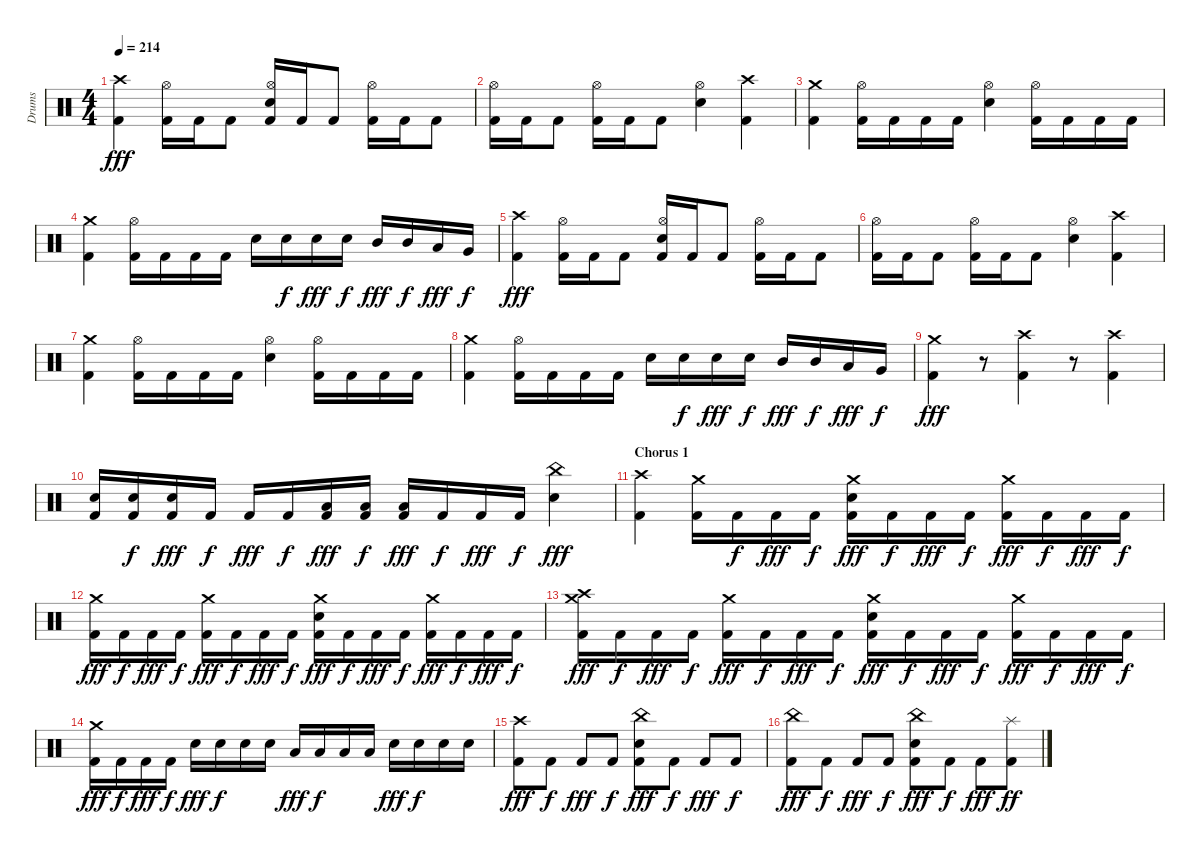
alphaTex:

\track ("Drums" "Drums") {instrument percussion}
\staff {score}
\articulation defaults
\ts (4 4)
\tempo 214
\clef neutral
\ks c
("Crash high (hit)" "Kick (hit) 2").4{dy fff} ("Hi-Hat (open)" "Kick (hit) 2").16 "Kick (hit) 2".16 "Kick (hit) 2".8 ("Hi-Hat (open)" "Electric Snare (hit)" "Kick (hit) 2").16 "Kick (hit) 2".16 "Kick (hit) 2".8 ("Hi-Hat (open)" "Kick (hit) 2").16 "Kick (hit) 2".16 "Kick (hit) 2".8 |
("Hi-Hat (open)" "Kick (hit) 2").16 "Kick (hit) 2".16 "Kick (hit) 2".8 ("Hi-Hat (open)" "Kick (hit) 2").16 "Kick (hit) 2".16 "Kick (hit) 2".8 ("Hi-Hat (open)" "Electric Snare (hit)").4 ("Crash high (hit)" "Kick (hit) 2").4 |
("Crash medium (hit)" "Kick (hit) 2").4 ("Hi-Hat (open)" "Kick (hit) 2").16 "Kick (hit) 2".16 "Kick (hit) 2".16 "Kick (hit) 2".16 ("Hi-Hat (open)" "Electric Snare (hit)").4 ("Hi-Hat (open)" "Kick (hit) 2").16 "Kick (hit) 2".16 "Kick (hit) 2".16 "Kick (hit) 2".16 |
("Crash medium (hit)" "Kick (hit) 2").4 ("Hi-Hat (open)" "Kick (hit) 2").16 "Kick (hit) 2".16 "Kick (hit) 2".16 "Kick (hit) 2".16 "Electric Snare (hit)".16 "Electric Snare (hit)".16{dy f} "Electric Snare (hit)".16{dy fff} "Electric Snare (hit)".16{dy f} "Mid Tom (hit)".16{dy fff} "Mid Tom (hit)".16{dy f} "Low Tom (hit)".16{dy fff} "Very Low Tom (hit)".16{dy f} |
("Crash high (hit)" "Kick (hit) 2").4{dy fff} ("Hi-Hat (open)" "Kick (hit) 2").16 "Kick (hit) 2".16 "Kick (hit) 2".8 ("Hi-Hat (open)" "Electric Snare (hit)" "Kick (hit) 2").16 "Kick (hit) 2".16 "Kick (hit) 2".8 ("Hi-Hat (open)" "Kick (hit) 2").16 "Kick (hit) 2".16 "Kick (hit) 2".8 |
("Hi-Hat (open)" "Kick (hit) 2").16 "Kick (hit) 2".16 "Kick (hit) 2".8 ("Hi-Hat (open)" "Kick (hit) 2").16 "Kick (hit) 2".16 "Kick (hit) 2".8 ("Hi-Hat (open)" "Electric Snare (hit)").4 ("Crash high (hit)" "Kick (hit) 2").4 |
("Crash medium (hit)" "Kick (hit) 2").4 ("Hi-Hat (open)" "Kick (hit) 2").16 "Kick (hit) 2".16 "Kick (hit) 2".16 "Kick (hit) 2".16 ("Hi-Hat (open)" "Electric Snare (hit)").4 ("Hi-Hat (open)" "Kick (hit) 2").16 "Kick (hit) 2".16 "Kick (hit) 2".16 "Kick (hit) 2".16 |
("Crash medium (hit)" "Kick (hit) 2").4 ("Hi-Hat (open)" "Kick (hit) 2").16 "Kick (hit) 2".16 "Kick (hit) 2".16 "Kick (hit) 2".16 "Electric Snare (hit)".16 "Electric Snare (hit)".16{dy f} "Electric Snare (hit)".16{dy fff} "Electric Snare (hit)".16{dy f} "Mid Tom (hit)".16{dy fff} "Mid Tom (hit)".16{dy f} "Low Tom (hit)".16{dy fff} "Very Low Tom (hit)".16{dy f} |
("Crash medium (hit)" "Kick (hit) 2").4{dy fff} r.8 ("Crash high (hit)" "Kick (hit) 2").4 r.8 ("Crash high (hit)" "Kick (hit) 2").4 |
("Electric Snare (hit)" "Kick (hit) 2").16 ("Electric Snare (hit)" "Kick (hit) 2").16{dy f} ("Electric Snare (hit)" "Kick (hit) 2").16{dy fff} "Kick (hit) 2".16{dy f} "Kick (hit) 2".16{dy fff} "Kick (hit) 2".16{dy f} ("Low Tom (hit)" "Kick (hit) 2").16{dy fff} ("Low Tom (hit)" "Kick (hit) 2").16{dy f} ("Low Tom (hit)" "Kick (hit) 2").16{dy fff} "Kick (hit) 2".16{dy f} "Kick (hit) 2".16{dy fff} "Kick (hit) 2".16{dy f} ("China (hit)" "Electric Snare (hit)").4{dy fff} |
\section ("" "Chorus 1")
("Crash high (hit)" "Kick (hit) 2").4 ("Crash medium (hit)" "Kick (hit) 2").16 "Kick (hit) 2".16{dy f} "Kick (hit) 2".16{dy fff} "Kick (hit) 2".16{dy f} ("Crash medium (hit)" "Electric Snare (hit)" "Kick (hit) 2").16{dy fff} "Kick (hit) 2".16{dy f} "Kick (hit) 2".16{dy fff} "Kick (hit) 2".16{dy f} ("Crash medium (hit)" "Kick (hit) 2").16{dy fff} "Kick (hit) 2".16{dy f} "Kick (hit) 2".16{dy fff} "Kick (hit) 2".16{dy f} |
("Crash medium (hit)" "Kick (hit) 2").16{dy fff} "Kick (hit) 2".16{dy f} "Kick (hit) 2".16{dy fff} "Kick (hit) 2".16{dy f} ("Crash medium (hit)" "Kick (hit) 2").16{dy fff} "Kick (hit) 2".16{dy f} "Kick (hit) 2".16{dy fff} "Kick (hit) 2".16{dy f} ("Crash medium (hit)" "Electric Snare (hit)" "Kick (hit) 2").16{dy fff} "Kick (hit) 2".16{dy f} "Kick (hit) 2".16{dy fff} "Kick (hit) 2".16{dy f} ("Crash medium (hit)" "Kick (hit) 2").16{dy fff} "Kick (hit) 2".16{dy f} "Kick (hit) 2".16{dy fff} "Kick (hit) 2".16{dy f} |
("Crash medium (hit)" "Crash high (hit)" "Kick (hit) 2").16{dy fff} "Kick (hit) 2".16{dy f} "Kick (hit) 2".16{dy fff} "Kick (hit) 2".16{dy f} ("Crash medium (hit)" "Kick (hit) 2").16{dy fff} "Kick (hit) 2".16{dy f} "Kick (hit) 2".16{dy fff} "Kick (hit) 2".16{dy f} ("Crash medium (hit)" "Electric Snare (hit)" "Kick (hit) 2").16{dy fff} "Kick (hit) 2".16{dy f} "Kick (hit) 2".16{dy fff} "Kick (hit) 2".16{dy f} ("Crash medium (hit)" "Kick (hit) 2").16{dy fff} "Kick (hit) 2".16{dy f} "Kick (hit) 2".16{dy fff} "Kick (hit) 2".16{dy f} |
("Crash medium (hit)" "Kick (hit) 2").16{dy fff} "Kick (hit) 2".16{dy f} "Kick (hit) 2".16{dy fff} "Kick (hit) 2".16{dy f} "Electric Snare (hit)".16{dy fff} "Electric Snare (hit)".16{dy f} "Electric Snare (hit)".16 "Electric Snare (hit)".16 "Low Tom (hit)".16{dy fff} "Low Tom (hit)".16{dy f} "Low Tom (hit)".16 "Low Tom (hit)".16 "Electric Snare (hit)".16{dy fff} "Electric Snare (hit)".16{dy f} "Electric Snare (hit)".16 "Electric Snare (hit)".16 |
("Crash high (hit)" "Kick (hit) 2").8{dy fff} "Kick (hit) 2".8{dy f} "Kick (hit) 2".8{dy fff} "Kick (hit) 2".8{dy f} ("China (hit)" "Electric Snare (hit)" "Kick (hit) 2").8{dy fff} "Kick (hit) 2".8{dy f} "Kick (hit) 2".8{dy fff} "Kick (hit) 2".8{dy f} |
("China (hit)" "Kick (hit) 2").8{dy fff} "Kick (hit) 2".8{dy f} "Kick (hit) 2".8{dy fff} "Kick (hit) 2".8{dy f} ("China (hit)" "Electric Snare (hit)" "Kick (hit) 2").8{dy fff} "Kick (hit) 2".8{dy f} "Kick (hit) 2".8{dy fff} ("Splash (hit)" "Kick (hit) 2").8{dy ff}
